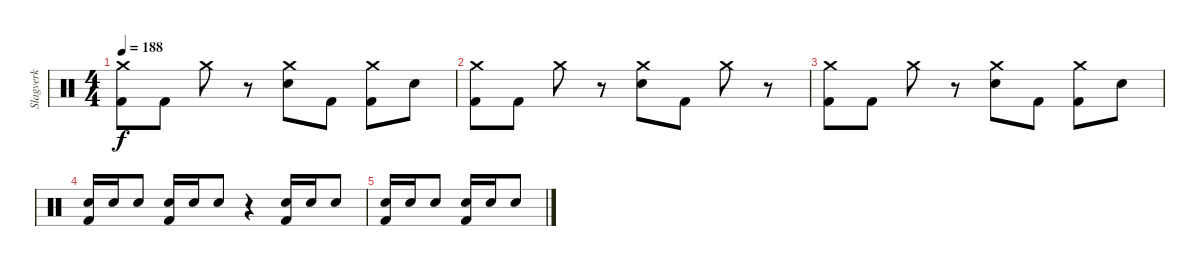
\track ("Slagverk" "Slagverk") {instrument percussion}
\staff {score}
\articulation defaults
\ts (4 4)
\tempo 188
\clef neutral
\ks c
("Crash medium (hit)" "Kick (hit) 2").8{dy f} "Kick (hit) 2".8 "Crash medium (hit)".8 r.8 ("Crash medium (hit)" "Electric Snare (hit)").8 "Kick (hit) 2".8 ("Crash medium (hit)" "Kick (hit) 2").8 "Electric Snare (hit)".8 |
("Crash medium (hit)" "Kick (hit) 2").8 "Kick (hit) 2".8 "Crash medium (hit)".8 r.8 ("Crash medium (hit)" "Electric Snare (hit)").8 "Kick (hit) 2".8 "Crash medium (hit)".8 r.8 |
("Crash medium (hit)" "Kick (hit) 2").8 "Kick (hit) 2".8 "Crash medium (hit)".8 r.8 ("Crash medium (hit)" "Electric Snare (hit)").8 "Kick (hit) 2".8 ("Crash medium (hit)" "Kick (hit) 2").8 "Electric Snare (hit)".8 |
("Electric Snare (hit)" "Kick (hit) 2").16 "Electric Snare (hit)".16 "Electric Snare (hit)".8 ("Electric Snare (hit)" "Kick (hit) 2").16 "Electric Snare (hit)".16 "Electric Snare (hit)".8 r.4 ("Electric Snare (hit)" "Kick (hit) 2").16 "Electric Snare (hit)".16 "Electric Snare (hit)".8 |
("Electric Snare (hit)" "Kick (hit) 2").16 "Electric Snare (hit)".16 "Electric Snare (hit)".8 ("Electric Snare (hit)" "Kick (hit) 2").16 "Electric Snare (hit)".16 "Electric Snare (hit)".8
